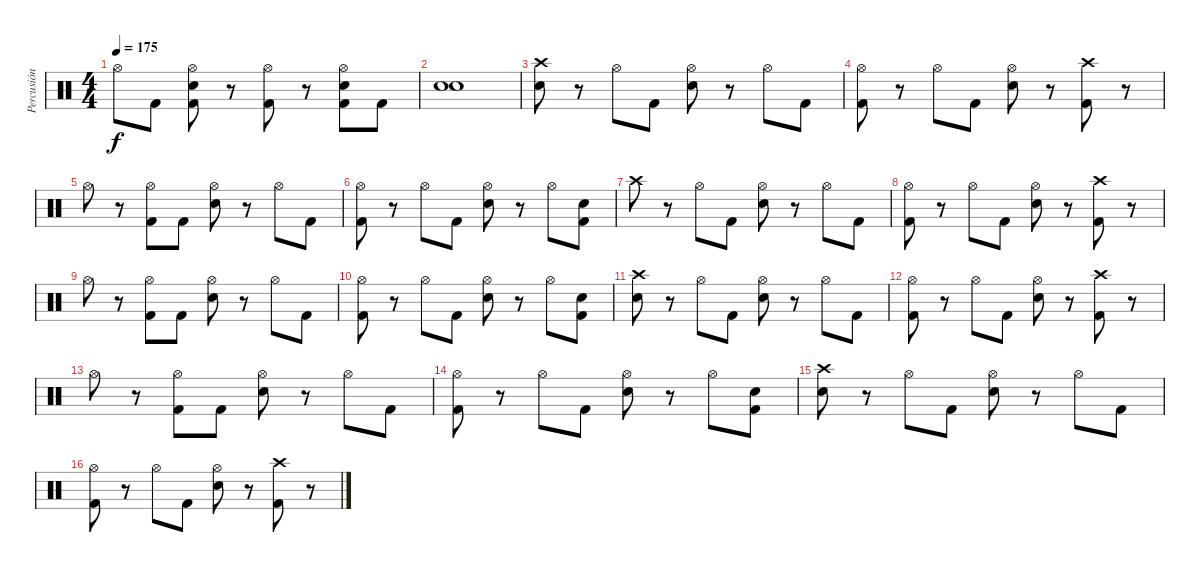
\track ("Percusión" "Percusión") {instrument percussion}
\staff {score}
\articulation defaults
\ts (4 4)
\tempo 175
\clef neutral
\ks c "Hi-Hat (open)".8{dy f} "Kick (hit) 2".8
("Hi-Hat (open)" "Electric Snare (hit)" "Kick (hit) 2").8 r.8 ("Hi-Hat (open)" "Kick (hit) 2").8 r.8 ("Electric Snare (hit)" "Hi-Hat (open)" "Kick (hit) 2").8 "Kick (hit) 2".8 |
("Electric Snare (hit)" "Electric Snare (hit)").1 |
("Crash high (hit)" "Electric Snare (hit)").8 r.8 "Hi-Hat (open)".8 "Kick (hit) 2".8 ("Hi-Hat (open)" "Electric Snare (hit)").8 r.8 "Hi-Hat (open)".8 "Kick (hit) 2".8 |
("Hi-Hat (open)" "Kick (hit) 2").8 r.8 "Hi-Hat (open)".8 "Kick (hit) 2".8 ("Hi-Hat (open)" "Electric Snare (hit)").8 r.8 ("Crash high (hit)" "Kick (hit) 2").8 r.8 |
"Hi-Hat (open)".8 r.8 ("Hi-Hat (open)" "Kick (hit) 2").8 "Kick (hit) 2".8 ("Hi-Hat (open)" "Electric Snare (hit)").8 r.8 "Hi-Hat (open)".8 "Kick (hit) 2".8 |
("Hi-Hat (open)" "Kick (hit) 2").8 r.8 "Hi-Hat (open)".8 "Kick (hit) 2".8 ("Electric Snare (hit)" "Hi-Hat (open)").8 r.8 "Hi-Hat (open)".8 ("Electric Snare (hit)" "Kick (hit) 2").8 |
"Crash high (hit)".8 r.8 "Hi-Hat (open)".8 "Kick (hit) 2".8 ("Hi-Hat (open)" "Electric Snare (hit)").8 r.8 "Hi-Hat (open)".8 "Kick (hit) 2".8 |
("Hi-Hat (open)" "Kick (hit) 2").8 r.8 "Hi-Hat (open)".8 "Kick (hit) 2".8 ("Hi-Hat (open)" "Electric Snare (hit)").8 r.8 ("Crash high (hit)" "Kick (hit) 2").8 r.8 |
"Hi-Hat (open)".8 r.8 ("Hi-Hat (open)" "Kick (hit) 2").8 "Kick (hit) 2".8 ("Hi-Hat (open)" "Electric Snare (hit)").8 r.8 "Hi-Hat (open)".8 "Kick (hit) 2".8 |
("Hi-Hat (open)" "Kick (hit) 2").8 r.8 "Hi-Hat (open)".8 "Kick (hit) 2".8 ("Electric Snare (hit)" "Hi-Hat (open)").8 r.8 "Hi-Hat (open)".8 ("Electric Snare (hit)" "Kick (hit) 2").8 |
("Crash high (hit)" "Electric Snare (hit)").8 r.8 "Hi-Hat (open)".8 "Kick (hit) 2".8 ("Hi-Hat (open)" "Electric Snare (hit)").8 r.8 "Hi-Hat (open)".8 "Kick (hit) 2".8 |
("Hi-Hat (open)" "Kick (hit) 2").8 r.8 "Hi-Hat (open)".8 "Kick (hit) 2".8 ("Hi-Hat (open)" "Electric Snare (hit)").8 r.8 ("Crash high (hit)" "Kick (hit) 2").8 r.8 |
"Hi-Hat (open)".8 r.8 ("Hi-Hat (open)" "Kick (hit) 2").8 "Kick (hit) 2".8 ("Hi-Hat (open)" "Electric Snare (hit)").8 r.8 "Hi-Hat (open)".8 "Kick (hit) 2".8 |
("Hi-Hat (open)" "Kick (hit) 2").8 r.8 "Hi-Hat (open)".8 "Kick (hit) 2".8 ("Electric Snare (hit)" "Hi-Hat (open)").8 r.8 "Hi-Hat (open)".8 ("Electric Snare (hit)" "Kick (hit) 2").8 |
("Crash high (hit)" "Electric Snare (hit)").8 r.8 "Hi-Hat (open)".8 "Kick (hit) 2".8 ("Hi-Hat (open)" "Electric Snare (hit)").8 r.8 "Hi-Hat (open)".8 "Kick (hit) 2".8 |
("Hi-Hat (open)" "Kick (hit) 2").8 r.8 "Hi-Hat (open)".8 "Kick (hit) 2".8 ("Hi-Hat (open)" "Electric Snare (hit)").8 r.8 ("Crash high (hit)" "Kick (hit) 2").8 r.8
